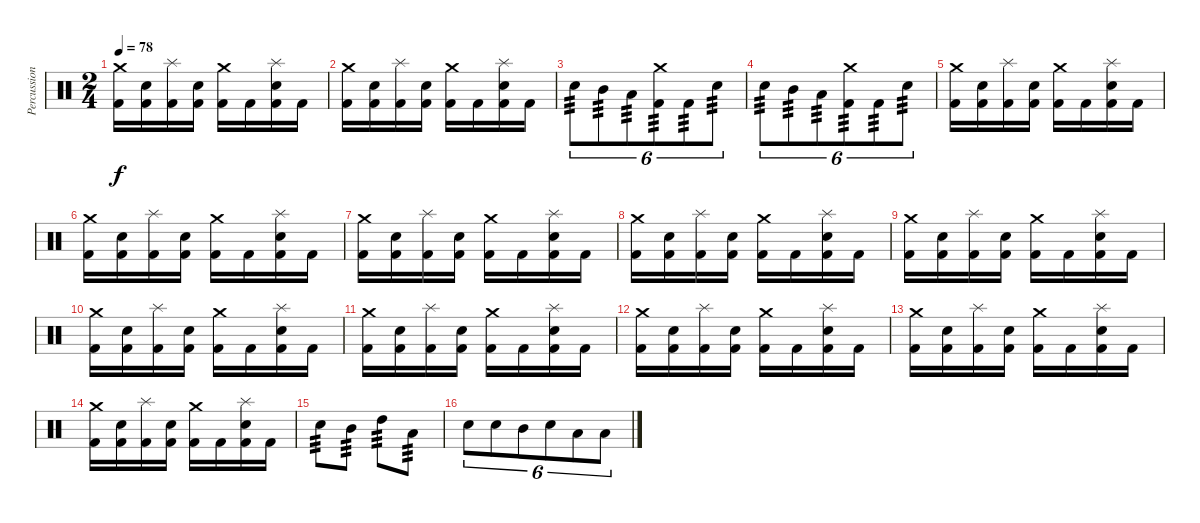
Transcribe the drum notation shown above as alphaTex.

\track ("Percussion" "Percussion") {instrument percussion}
\staff {score}
\articulation defaults
\ts (2 4)
\tempo 78
\clef neutral
\ks c
("Kick (hit) 2" "Crash medium (hit)").16{dy f} ("Kick (hit) 2" "Snare (hit) 2").16 ("Kick (hit) 2" "Splash (hit)").16 ("Kick (hit) 2" "Snare (hit) 2").16 ("Kick (hit) 2" "Crash medium (hit)").16 "Kick (hit) 2".16 ("Kick (hit) 2" "Snare (hit) 2" "Splash (hit)").16 "Kick (hit) 2".16 |
("Kick (hit) 2" "Crash medium (hit)").16 ("Kick (hit) 2" "Snare (hit) 2").16 ("Kick (hit) 2" "Splash (hit)").16 ("Kick (hit) 2" "Snare (hit) 2").16 ("Kick (hit) 2" "Crash medium (hit)").16 "Kick (hit) 2".16 ("Kick (hit) 2" "Snare (hit) 2" "Splash (hit)").16 "Kick (hit) 2".16 |
"Snare (hit) 2".8{tu (6 4) tp 3} "Mid Tom (hit)".8{tu (6 4) tp 3} "Low Tom (hit)".8{tu (6 4) tp 3} ("Crash medium (hit)" "Kick (hit) 2").8{tu (6 4) tp 3} "Kick (hit) 2".8{tu (6 4) tp 3} "Snare (hit) 2".8{tu (6 4) tp 3} |
"Snare (hit) 2".8{tu (6 4) tp 3} "Mid Tom (hit)".8{tu (6 4) tp 3} "Low Tom (hit)".8{tu (6 4) tp 3} ("Crash medium (hit)" "Kick (hit) 2").8{tu (6 4) tp 3} "Kick (hit) 2".8{tu (6 4) tp 3} "Snare (hit) 2".8{tu (6 4) tp 3} |
("Kick (hit) 2" "Crash medium (hit)").16 ("Kick (hit) 2" "Snare (hit) 2").16 ("Kick (hit) 2" "Splash (hit)").16 ("Kick (hit) 2" "Snare (hit) 2").16 ("Kick (hit) 2" "Crash medium (hit)").16 "Kick (hit) 2".16 ("Kick (hit) 2" "Snare (hit) 2" "Splash (hit)").16 "Kick (hit) 2".16 |
("Kick (hit) 2" "Crash medium (hit)").16 ("Kick (hit) 2" "Snare (hit) 2").16 ("Kick (hit) 2" "Splash (hit)").16 ("Kick (hit) 2" "Snare (hit) 2").16 ("Kick (hit) 2" "Crash medium (hit)").16 "Kick (hit) 2".16 ("Kick (hit) 2" "Snare (hit) 2" "Splash (hit)").16 "Kick (hit) 2".16 |
("Kick (hit) 2" "Crash medium (hit)").16 ("Kick (hit) 2" "Snare (hit) 2").16 ("Kick (hit) 2" "Splash (hit)").16 ("Kick (hit) 2" "Snare (hit) 2").16 ("Kick (hit) 2" "Crash medium (hit)").16 "Kick (hit) 2".16 ("Kick (hit) 2" "Snare (hit) 2" "Splash (hit)").16 "Kick (hit) 2".16 |
("Kick (hit) 2" "Crash medium (hit)").16 ("Kick (hit) 2" "Snare (hit) 2").16 ("Kick (hit) 2" "Splash (hit)").16 ("Kick (hit) 2" "Snare (hit) 2").16 ("Kick (hit) 2" "Crash medium (hit)").16 "Kick (hit) 2".16 ("Kick (hit) 2" "Snare (hit) 2" "Splash (hit)").16 "Kick (hit) 2".16 |
("Kick (hit) 2" "Crash medium (hit)").16 ("Kick (hit) 2" "Snare (hit) 2").16 ("Kick (hit) 2" "Splash (hit)").16 ("Kick (hit) 2" "Snare (hit) 2").16 ("Kick (hit) 2" "Crash medium (hit)").16 "Kick (hit) 2".16 ("Kick (hit) 2" "Snare (hit) 2" "Splash (hit)").16 "Kick (hit) 2".16 |
("Kick (hit) 2" "Crash medium (hit)").16 ("Kick (hit) 2" "Snare (hit) 2").16 ("Kick (hit) 2" "Splash (hit)").16 ("Kick (hit) 2" "Snare (hit) 2").16 ("Kick (hit) 2" "Crash medium (hit)").16 "Kick (hit) 2".16 ("Kick (hit) 2" "Snare (hit) 2" "Splash (hit)").16 "Kick (hit) 2".16 |
("Kick (hit) 2" "Crash medium (hit)").16 ("Kick (hit) 2" "Snare (hit) 2").16 ("Kick (hit) 2" "Splash (hit)").16 ("Kick (hit) 2" "Snare (hit) 2").16 ("Kick (hit) 2" "Crash medium (hit)").16 "Kick (hit) 2".16 ("Kick (hit) 2" "Snare (hit) 2" "Splash (hit)").16 "Kick (hit) 2".16 |
("Kick (hit) 2" "Crash medium (hit)").16 ("Kick (hit) 2" "Snare (hit) 2").16 ("Kick (hit) 2" "Splash (hit)").16 ("Kick (hit) 2" "Snare (hit) 2").16 ("Kick (hit) 2" "Crash medium (hit)").16 "Kick (hit) 2".16 ("Kick (hit) 2" "Snare (hit) 2" "Splash (hit)").16 "Kick (hit) 2".16 |
("Kick (hit) 2" "Crash medium (hit)").16 ("Kick (hit) 2" "Snare (hit) 2").16 ("Kick (hit) 2" "Splash (hit)").16 ("Kick (hit) 2" "Snare (hit) 2").16 ("Kick (hit) 2" "Crash medium (hit)").16 "Kick (hit) 2".16 ("Kick (hit) 2" "Snare (hit) 2" "Splash (hit)").16 "Kick (hit) 2".16 |
("Kick (hit) 2" "Crash medium (hit)").16 ("Kick (hit) 2" "Snare (hit) 2").16 ("Kick (hit) 2" "Splash (hit)").16 ("Kick (hit) 2" "Snare (hit) 2").16 ("Kick (hit) 2" "Crash medium (hit)").16 "Kick (hit) 2".16 ("Kick (hit) 2" "Snare (hit) 2" "Splash (hit)").16 "Kick (hit) 2".16 |
"Snare (hit) 2".8{tp 3} "Mid Tom (hit)".8{tp 3} "High Tom (hit)".8{tp 3} "Low Tom (hit)".8{tp 3} |
"Snare (hit) 2".8{tu (6 4)} "Snare (hit) 2".8{tu (6 4)} "Mid Tom (hit)".8{tu (6 4)} "Snare (hit) 2".8{tu (6 4)} "Low Tom (hit)".8{tu (6 4)} "Low Tom (hit)".8{tu (6 4)}
